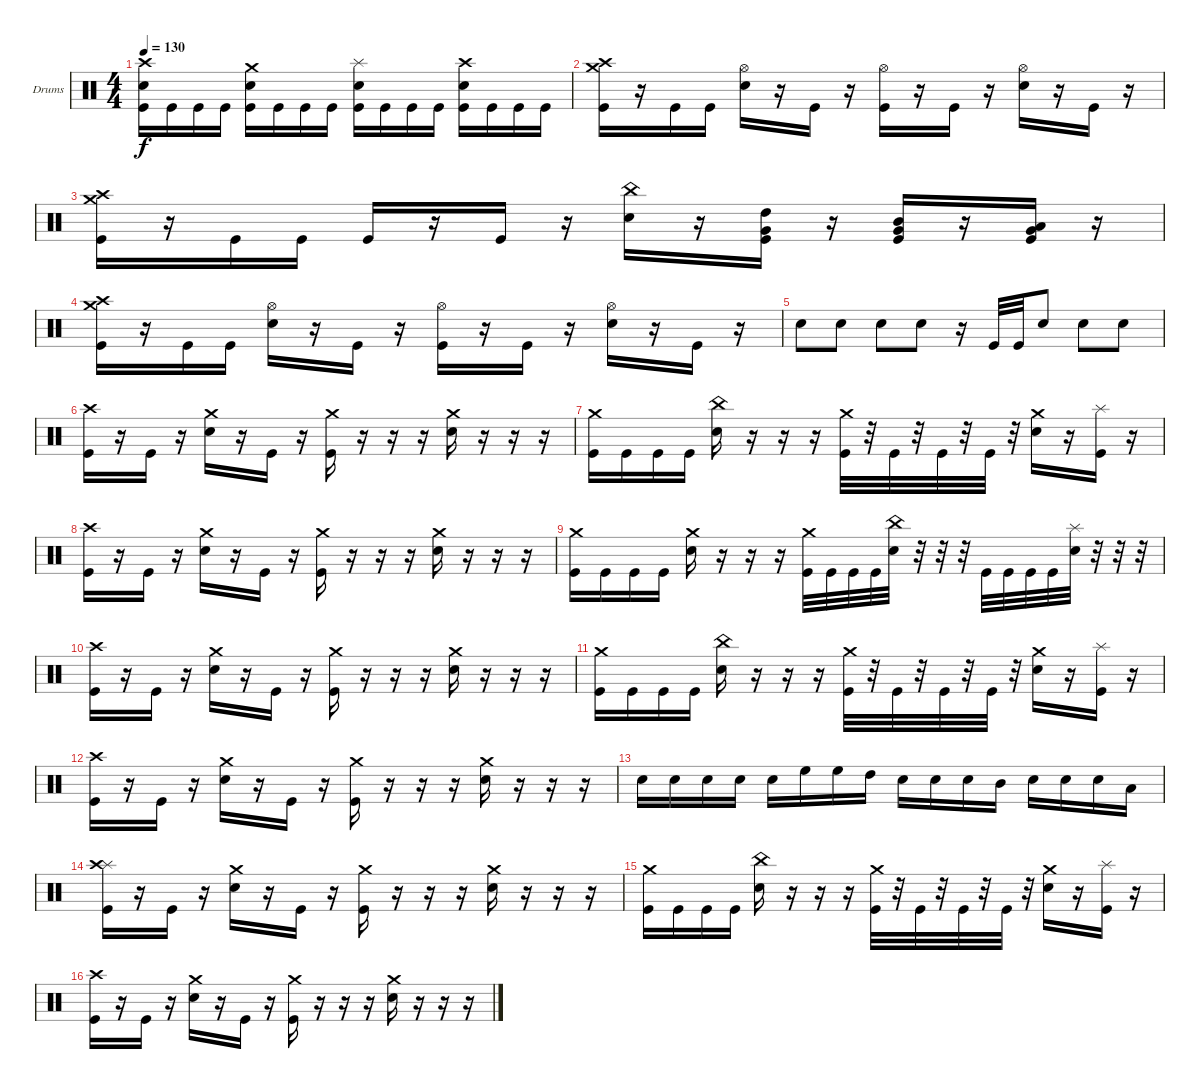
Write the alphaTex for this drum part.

\defaultSystemsLayout 4
\bracketExtendMode groupsimilarinstruments
\firstSystemTrackNameOrientation horizontal
\otherSystemsTrackNameOrientation horizontal
\track ("Drumkit" "Drums") {instrument percussion}
\staff {score}
\articulation defaults
\ts (4 4)
\tempo 130
\clef neutral
\scale
0.333333
\ks c
("Kick (hit)" "Snare (hit) 2" "Crash high (hit)").16{dy f} "Kick (hit)".16 "Kick (hit)".16 "Kick (hit)".16 ("Kick (hit)" "Snare (hit) 2" "Crash medium (hit)").16 "Kick (hit)".16 "Kick (hit)".16 "Kick (hit)".16 ("Kick (hit)" "Snare (hit) 2" "Splash (hit)").16 "Kick (hit)".16 "Kick (hit)".16 "Kick (hit)".16 ("Kick (hit)" "Snare (hit) 2" "Crash high (hit)").16 "Kick (hit)".16 "Kick (hit)".16 "Kick (hit)".16 |
\scale
0.333333 ("Kick (hit)" "Crash medium (hit)" "Crash high (hit)").16 r.16 "Kick (hit)".16 "Kick (hit)".16 ("Snare (hit) 2" "Hi-Hat (open)").16 r.16 "Kick (hit)".16 r.16 ("Kick (hit)" "Hi-Hat (open)").16 r.16 "Kick (hit)".16 r.16 ("Snare (hit) 2" "Hi-Hat (open)").16 r.16 "Kick (hit)".16 r.16 |
\scale
0.333333 ("Kick (hit)" "Crash medium (hit)" "Crash high (hit)").16 r.16 "Kick (hit)".16 "Kick (hit)".16 "Kick (hit)".16 r.16 "Kick (hit)".16 r.16 ("Snare (hit) 2" "China (hit)").16 r.16 ("Kick (hit)" "Very Low Tom (hit)" "High Tom (hit)").16 r.16 ("Kick (hit)" "Very Low Tom (hit)" "Mid Tom (hit)").16 r.16 ("Kick (hit)" "Very Low Tom (hit)" "Low Tom (hit)").16 r.16 |
\scale
0.333333 ("Kick (hit)" "Crash medium (hit)" "Crash high (hit)").16 r.16 "Kick (hit)".16 "Kick (hit)".16 ("Snare (hit) 2" "Hi-Hat (open)").16 r.16 "Kick (hit)".16 r.16 ("Kick (hit)" "Hi-Hat (open)").16 r.16 "Kick (hit)".16 r.16 ("Snare (hit) 2" "Hi-Hat (open)").16 r.16 "Kick (hit)".16 r.16 |
\scale
0.333333 "Snare (hit) 2".8 "Snare (hit) 2".8 "Snare (hit) 2".8 "Snare (hit) 2".8 r.16 "Kick (hit)".32 "Kick (hit)".32 "Snare (hit) 2".8 "Snare (hit) 2".8 "Snare (hit) 2".8 |
\scale
0.333333 ("Kick (hit)" "Crash high (hit)").16 r.16 "Kick (hit)".16 r.16 ("Snare (hit) 2" "Crash medium (hit)").16 r.16 "Kick (hit)".16 r.16 ("Kick (hit)" "Crash medium (hit)").16 r.16 r.16 r.16 ("Snare (hit) 2" "Crash medium (hit)").16 r.16 r.16 r.16 |
\scale
0.333333 ("Kick (hit)" "Crash medium (hit)").16 "Kick (hit)".16 "Kick (hit)".16 "Kick (hit)".16 ("Snare (hit) 2" "China (hit)").16 r.16 r.16 r.16 ("Kick (hit)" "Crash medium (hit)").32 r.32 "Kick (hit)".32 r.32 "Kick (hit)".32 r.32 "Kick (hit)".32 r.32 ("Snare (hit) 2" "Crash medium (hit)").16 r.16 ("Kick (hit)" "Splash (hit)").16 r.16 |
\scale
0.333333 ("Kick (hit)" "Crash high (hit)").16 r.16 "Kick (hit)".16 r.16 ("Snare (hit) 2" "Crash medium (hit)").16 r.16 "Kick (hit)".16 r.16 ("Kick (hit)" "Crash medium (hit)").16 r.16 r.16 r.16 ("Snare (hit) 2" "Crash medium (hit)").16 r.16 r.16 r.16 |
\scale
0.333333 ("Kick (hit)" "Crash medium (hit)").16 "Kick (hit)".16 "Kick (hit)".16 "Kick (hit)".16 ("Snare (hit) 2" "Crash medium (hit)").16 r.16 r.16 r.16 ("Kick (hit)" "Crash medium (hit)").32 "Kick (hit)".32 "Kick (hit)".32 "Kick (hit)".32 ("Snare (hit) 2" "China (hit)").32 r.32 r.32 r.32 "Kick (hit)".32 "Kick (hit)".32 "Kick (hit)".32 "Kick (hit)".32 ("Snare (hit) 2" "Splash (hit)").32 r.32 r.32 r.32 |
\scale
0.333333 ("Kick (hit)" "Crash high (hit)").16 r.16 "Kick (hit)".16 r.16 ("Snare (hit) 2" "Crash medium (hit)").16 r.16 "Kick (hit)".16 r.16 ("Kick (hit)" "Crash medium (hit)").16 r.16 r.16 r.16 ("Snare (hit) 2" "Crash medium (hit)").16 r.16 r.16 r.16 |
\scale
0.333333 ("Kick (hit)" "Crash medium (hit)").16 "Kick (hit)".16 "Kick (hit)".16 "Kick (hit)".16 ("Snare (hit) 2" "China (hit)").16 r.16 r.16 r.16 ("Kick (hit)" "Crash medium (hit)").32 r.32 "Kick (hit)".32 r.32 "Kick (hit)".32 r.32 "Kick (hit)".32 r.32 ("Snare (hit) 2" "Crash medium (hit)").16 r.16 ("Kick (hit)" "Splash (hit)").16 r.16 |
\scale
0.333333 ("Kick (hit)" "Crash high (hit)").16 r.16 "Kick (hit)".16 r.16 ("Snare (hit) 2" "Crash medium (hit)").16 r.16 "Kick (hit)".16 r.16 ("Kick (hit)" "Crash medium (hit)").16 r.16 r.16 r.16 ("Snare (hit) 2" "Crash medium (hit)").16 r.16 r.16 r.16 |
\scale
0.333333 "Snare (hit) 2".16 "Snare (hit) 2".16 "Snare (hit) 2".16 "Snare (hit) 2".16 "Snare (hit) 2".16 "High Floor Tom (hit)".16 "High Floor Tom (hit)".16 "High Tom (hit)".16 "Snare (hit) 2".16 "Snare (hit) 2".16 "Snare (hit) 2".16 "Mid Tom (hit)".16 "Snare (hit) 2".16 "Snare (hit) 2".16 "Snare (hit) 2".16 "Low Tom (hit)".16 |
\scale
0.333333 ("Kick (hit)" "Splash (hit)" "Crash high (hit)").16 r.16 "Kick (hit)".16 r.16 ("Snare (hit) 2" "Crash medium (hit)").16 r.16 "Kick (hit)".16 r.16 ("Kick (hit)" "Crash medium (hit)").16 r.16 r.16 r.16 ("Snare (hit) 2" "Crash medium (hit)").16 r.16 r.16 r.16 |
\scale
0.333333 ("Kick (hit)" "Crash medium (hit)").16 "Kick (hit)".16 "Kick (hit)".16 "Kick (hit)".16 ("Snare (hit) 2" "China (hit)").16 r.16 r.16 r.16 ("Kick (hit)" "Crash medium (hit)").32 r.32 "Kick (hit)".32 r.32 "Kick (hit)".32 r.32 "Kick (hit)".32 r.32 ("Snare (hit) 2" "Crash medium (hit)").16 r.16 ("Kick (hit)" "Splash (hit)").16 r.16 |
\scale
0.333333 ("Kick (hit)" "Crash high (hit)").16 r.16 "Kick (hit)".16 r.16 ("Snare (hit) 2" "Crash medium (hit)").16 r.16 "Kick (hit)".16 r.16 ("Kick (hit)" "Crash medium (hit)").16 r.16 r.16 r.16 ("Snare (hit) 2" "Crash medium (hit)").16 r.16 r.16 r.16
